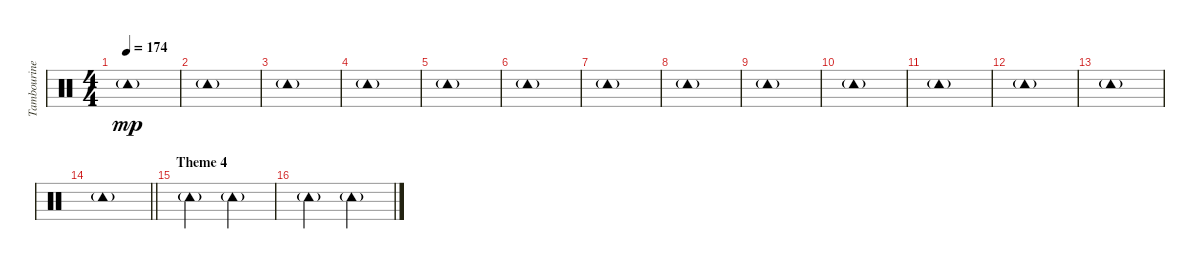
\track ("Tambourine" "Tambourine") {instrument percussion}
\staff {score}
\articulation defaults
\ts (4 4)
\tempo 174
\clef neutral
\ks c "Tambourine (hit)"{g}.1{dy mp}
|
"Tambourine (hit)"{g}.1 |
"Tambourine (hit)"{g}.1 |
"Tambourine (hit)"{g}.1 |
"Tambourine (hit)"{g}.1 |
"Tambourine (hit)"{g}.1 |
"Tambourine (hit)"{g}.1 |
"Tambourine (hit)"{g}.1 |
"Tambourine (hit)"{g}.1 |
"Tambourine (hit)"{g}.1 |
"Tambourine (hit)"{g}.1 |
"Tambourine (hit)"{g}.1 |
"Tambourine (hit)"{g}.1 |
\barLineRight lightlight "Tambourine (hit)"{g}.1
|
\section ("" "Theme 4")
"Tambourine (hit)"{g}.2 "Tambourine (hit)"{g}.2 |
"Tambourine (hit)"{g}.2 "Tambourine (hit)"{g}.2
